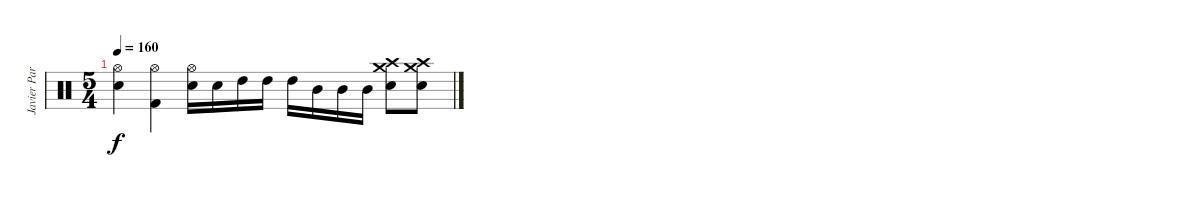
\track ("Javier Partida" "Javier Par") {instrument percussion}
\staff {score}
\articulation defaults
\ts (5 4)
\tempo 160
\clef neutral
\ks c
("Hi-Hat (open)" "Snare (hit) 2").4{dy f} ("Hi-Hat (open)" "Kick (hit) 2").4 ("Hi-Hat (open)" "Snare (hit) 2").16 "Snare (hit) 2".16 "High Tom (hit)".16 "High Tom (hit)".16 "High Tom (hit)".16 "Mid Tom (hit)".16 "Mid Tom (hit)".16 "Mid Tom (hit)".16 ("Crash high (hit)" "Snare (hit) 2" "Crash medium (hit)").8 ("Crash high (hit)" "Snare (hit) 2" "Crash medium (hit)").8
